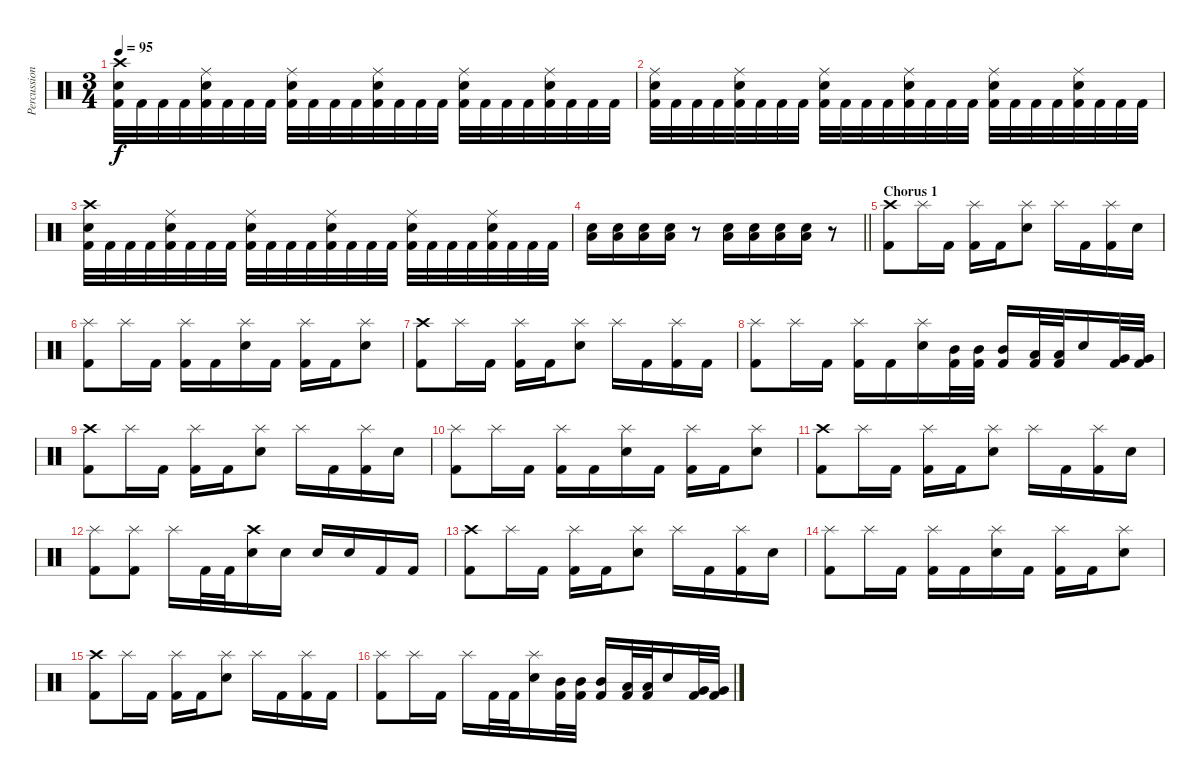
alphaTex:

\track ("Percussion Mike" "Percussion") {instrument percussion}
\staff {score}
\articulation defaults
\ts (3 4)
\tempo 95
\clef neutral
\ks c
("Crash high (hit)" "Snare (hit) 2" "Kick (hit) 2").32{dy f} "Kick (hit) 2".32 "Kick (hit) 2".32 "Kick (hit) 2".32 ("Ride (middle)" "Snare (hit) 2" "Kick (hit) 2").32 "Kick (hit) 2".32 "Kick (hit) 2".32 "Kick (hit) 2".32 ("Ride (middle)" "Snare (hit) 2" "Kick (hit) 2").32 "Kick (hit) 2".32 "Kick (hit) 2".32 "Kick (hit) 2".32 ("Ride (middle)" "Snare (hit) 2" "Kick (hit) 2").32 "Kick (hit) 2".32 "Kick (hit) 2".32 "Kick (hit) 2".32 ("Ride (middle)" "Snare (hit) 2" "Kick (hit) 2").32 "Kick (hit) 2".32 "Kick (hit) 2".32 "Kick (hit) 2".32 ("Ride (middle)" "Snare (hit) 2" "Kick (hit) 2").32 "Kick (hit) 2".32 "Kick (hit) 2".32 "Kick (hit) 2".32 |
("Ride (middle)" "Snare (hit) 2" "Kick (hit) 2").32 "Kick (hit) 2".32 "Kick (hit) 2".32 "Kick (hit) 2".32 ("Ride (middle)" "Snare (hit) 2" "Kick (hit) 2").32 "Kick (hit) 2".32 "Kick (hit) 2".32 "Kick (hit) 2".32 ("Ride (middle)" "Snare (hit) 2" "Kick (hit) 2").32 "Kick (hit) 2".32 "Kick (hit) 2".32 "Kick (hit) 2".32 ("Ride (middle)" "Snare (hit) 2" "Kick (hit) 2").32 "Kick (hit) 2".32 "Kick (hit) 2".32 "Kick (hit) 2".32 ("Ride (middle)" "Snare (hit) 2" "Kick (hit) 2").32 "Kick (hit) 2".32 "Kick (hit) 2".32 "Kick (hit) 2".32 ("Ride (middle)" "Snare (hit) 2" "Kick (hit) 2").32 "Kick (hit) 2".32 "Kick (hit) 2".32 "Kick (hit) 2".32 |
("Crash high (hit)" "Snare (hit) 2" "Kick (hit) 2").32 "Kick (hit) 2".32 "Kick (hit) 2".32 "Kick (hit) 2".32 ("Ride (middle)" "Snare (hit) 2" "Kick (hit) 2").32 "Kick (hit) 2".32 "Kick (hit) 2".32 "Kick (hit) 2".32 ("Ride (middle)" "Snare (hit) 2" "Kick (hit) 2").32 "Kick (hit) 2".32 "Kick (hit) 2".32 "Kick (hit) 2".32 ("Ride (middle)" "Snare (hit) 2" "Kick (hit) 2").32 "Kick (hit) 2".32 "Kick (hit) 2".32 "Kick (hit) 2".32 ("Ride (middle)" "Snare (hit) 2" "Kick (hit) 2").32 "Kick (hit) 2".32 "Kick (hit) 2".32 "Kick (hit) 2".32 ("Ride (middle)" "Snare (hit) 2" "Kick (hit) 2").32 "Kick (hit) 2".32 "Kick (hit) 2".32 "Kick (hit) 2".32 |
\barLineRight lightlight
("Snare (hit) 2" "Low Floor Tom (hit)").16 ("Snare (hit) 2" "Low Floor Tom (hit)").16 ("Snare (hit) 2" "Low Floor Tom (hit)").16 ("Snare (hit) 2" "Low Floor Tom (hit)").16 r.8 ("Snare (hit) 2" "Low Floor Tom (hit)").16 ("Snare (hit) 2" "Low Floor Tom (hit)").16{beam merge} ("Snare (hit) 2" "Low Floor Tom (hit)").16 ("Snare (hit) 2" "Low Floor Tom (hit)").16 r.8 |
\section ("" "Chorus 1")
("Crash high (hit)" "Kick (hit) 2").8 "Splash (hit)".16 "Kick (hit) 2".16 ("Splash (hit)" "Kick (hit) 2").16 "Kick (hit) 2".16 ("Splash (hit)" "Snare (hit) 2").8 "Splash (hit)".16 "Kick (hit) 2".16 ("Splash (hit)" "Kick (hit) 2").16 "Snare (hit) 2".16 |
("Splash (hit)" "Kick (hit) 2").8 "Splash (hit)".16 "Kick (hit) 2".16 ("Splash (hit)" "Kick (hit) 2").16 "Kick (hit) 2".16 ("Splash (hit)" "Snare (hit) 2").16 "Kick (hit) 2".16 ("Splash (hit)" "Kick (hit) 2").16 "Kick (hit) 2".16 ("Splash (hit)" "Snare (hit) 2").8 |
("Crash high (hit)" "Kick (hit) 2").8 "Splash (hit)".16 "Kick (hit) 2".16 ("Splash (hit)" "Kick (hit) 2").16 "Kick (hit) 2".16 ("Splash (hit)" "Snare (hit) 2").8 "Splash (hit)".16 "Kick (hit) 2".16 ("Splash (hit)" "Kick (hit) 2").16 "Kick (hit) 2".16 |
("Splash (hit)" "Kick (hit) 2").8 "Splash (hit)".16 "Kick (hit) 2".16 ("Splash (hit)" "Kick (hit) 2").16 "Kick (hit) 2".16 ("Splash (hit)" "Snare (hit) 2").16 ("Mid Tom (hit)" "Kick (hit) 2").32 ("Mid Tom (hit)" "Kick (hit) 2").32 ("Mid Tom (hit)" "Kick (hit) 2").16 ("Low Tom (hit)" "Kick (hit) 2").32 ("Low Tom (hit)" "Kick (hit) 2").32 "Snare (hit) 2".16 ("Very Low Tom (hit)" "Kick (hit) 2").32 ("Very Low Tom (hit)" "Kick (hit) 2").32 |
("Crash high (hit)" "Kick (hit) 2").8 "Splash (hit)".16 "Kick (hit) 2".16 ("Splash (hit)" "Kick (hit) 2").16 "Kick (hit) 2".16 ("Splash (hit)" "Snare (hit) 2").8 "Splash (hit)".16 "Kick (hit) 2".16 ("Splash (hit)" "Kick (hit) 2").16 "Snare (hit) 2".16 |
("Splash (hit)" "Kick (hit) 2").8 "Splash (hit)".16 "Kick (hit) 2".16 ("Splash (hit)" "Kick (hit) 2").16 "Kick (hit) 2".16 ("Splash (hit)" "Snare (hit) 2").16 "Kick (hit) 2".16 ("Splash (hit)" "Kick (hit) 2").16 "Kick (hit) 2".16 ("Splash (hit)" "Snare (hit) 2").8 |
("Crash high (hit)" "Kick (hit) 2").8 "Splash (hit)".16 "Kick (hit) 2".16 ("Splash (hit)" "Kick (hit) 2").16 "Kick (hit) 2".16 ("Splash (hit)" "Snare (hit) 2").8 "Splash (hit)".16 "Kick (hit) 2".16 ("Splash (hit)" "Kick (hit) 2").16 "Snare (hit) 2".16 |
("Splash (hit)" "Kick (hit) 2").8 ("Splash (hit)" "Kick (hit) 2").8 "Splash (hit)".16 "Kick (hit) 2".32 "Kick (hit) 2".32 ("Crash high (hit)" "Snare (hit) 2").16 "Snare (hit) 2".16 "Snare (hit) 2".16 "Snare (hit) 2".16 "Kick (hit) 2".16 "Kick (hit) 2".16 |
("Crash high (hit)" "Kick (hit) 2").8 "Splash (hit)".16 "Kick (hit) 2".16 ("Splash (hit)" "Kick (hit) 2").16 "Kick (hit) 2".16 ("Splash (hit)" "Snare (hit) 2").8 "Splash (hit)".16 "Kick (hit) 2".16 ("Splash (hit)" "Kick (hit) 2").16 "Snare (hit) 2".16 |
("Splash (hit)" "Kick (hit) 2").8 "Splash (hit)".16 "Kick (hit) 2".16 ("Splash (hit)" "Kick (hit) 2").16 "Kick (hit) 2".16 ("Splash (hit)" "Snare (hit) 2").16 "Kick (hit) 2".16 ("Splash (hit)" "Kick (hit) 2").16 "Kick (hit) 2".16 ("Splash (hit)" "Snare (hit) 2").8 |
("Crash high (hit)" "Kick (hit) 2").8 "Splash (hit)".16 "Kick (hit) 2".16 ("Splash (hit)" "Kick (hit) 2").16 "Kick (hit) 2".16 ("Splash (hit)" "Snare (hit) 2").8 "Splash (hit)".16 "Kick (hit) 2".16 ("Splash (hit)" "Kick (hit) 2").16 "Kick (hit) 2".16 |
("Splash (hit)" "Kick (hit) 2").8 "Splash (hit)".16 "Kick (hit) 2".16 "Splash (hit)".16 "Kick (hit) 2".32 "Kick (hit) 2".32 ("Splash (hit)" "Snare (hit) 2").16 ("Mid Tom (hit)" "Kick (hit) 2").32 ("Mid Tom (hit)" "Kick (hit) 2").32 ("Mid Tom (hit)" "Kick (hit) 2").16 ("Low Tom (hit)" "Kick (hit) 2").32 ("Low Tom (hit)" "Kick (hit) 2").32 "Snare (hit) 2".16 ("Very Low Tom (hit)" "Kick (hit) 2").32 ("Very Low Tom (hit)" "Kick (hit) 2").32
